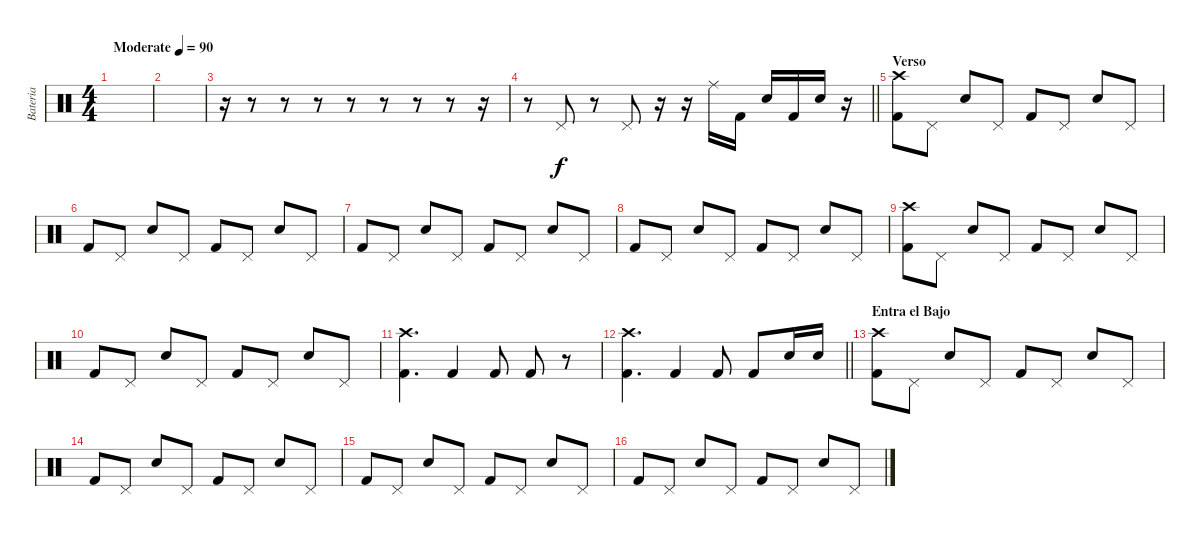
\track ("Bateria" "Bateria") {instrument percussion}
\staff {score}
\articulation defaults
\ts (4 4)
\tempo (90 "Moderate")
\clef neutral
\ks c
|
|
r.16 r.8 r.8 r.8 r.8 r.8 r.8 r.8 r.16 |
\barLineRight lightlight
r.8 "Pedal Hi-Hat (hit)".8 r.8 "Pedal Hi-Hat (hit)".8 r.16 r.16 "Ride (middle)".16 "Kick (hit) 2".16 "Snare (hit) 2".16 "Kick (hit) 2".16 "Snare (hit) 2".16 r.16 |
\section ("" "Verso")
("Kick (hit) 2" "Crash high (hit)").8 "Pedal Hi-Hat (hit)".8 "Snare (hit) 2".8 "Pedal Hi-Hat (hit)".8 "Kick (hit) 2".8 "Pedal Hi-Hat (hit)".8 "Snare (hit) 2".8 "Pedal Hi-Hat (hit)".8 |
"Kick (hit) 2".8 "Pedal Hi-Hat (hit)".8 "Snare (hit) 2".8 "Pedal Hi-Hat (hit)".8 "Kick (hit) 2".8 "Pedal Hi-Hat (hit)".8 "Snare (hit) 2".8 "Pedal Hi-Hat (hit)".8 |
"Kick (hit) 2".8 "Pedal Hi-Hat (hit)".8 "Snare (hit) 2".8 "Pedal Hi-Hat (hit)".8 "Kick (hit) 2".8 "Pedal Hi-Hat (hit)".8 "Snare (hit) 2".8 "Pedal Hi-Hat (hit)".8 |
"Kick (hit) 2".8 "Pedal Hi-Hat (hit)".8 "Snare (hit) 2".8 "Pedal Hi-Hat (hit)".8 "Kick (hit) 2".8 "Pedal Hi-Hat (hit)".8 "Snare (hit) 2".8 "Pedal Hi-Hat (hit)".8 |
("Kick (hit) 2" "Crash high (hit)").8 "Pedal Hi-Hat (hit)".8 "Snare (hit) 2".8 "Pedal Hi-Hat (hit)".8 "Kick (hit) 2".8 "Pedal Hi-Hat (hit)".8 "Snare (hit) 2".8 "Pedal Hi-Hat (hit)".8 |
"Kick (hit) 2".8 "Pedal Hi-Hat (hit)".8 "Snare (hit) 2".8 "Pedal Hi-Hat (hit)".8 "Kick (hit) 2".8 "Pedal Hi-Hat (hit)".8 "Snare (hit) 2".8 "Pedal Hi-Hat (hit)".8 |
("Kick (hit) 2" "Crash high (hit)").4{d} "Kick (hit) 2".4 "Kick (hit) 2".8 "Kick (hit) 2".8 r.8 |
\barLineRight lightlight
("Kick (hit) 2" "Crash high (hit)").4{d} "Kick (hit) 2".4 "Kick (hit) 2".8 "Kick (hit) 2".8 "Snare (hit) 2".16 "Snare (hit) 2".16 |
\section ("" "Entra el Bajo")
("Kick (hit) 2" "Crash high (hit)").8 "Pedal Hi-Hat (hit)".8 "Snare (hit) 2".8 "Pedal Hi-Hat (hit)".8 "Kick (hit) 2".8 "Pedal Hi-Hat (hit)".8 "Snare (hit) 2".8 "Pedal Hi-Hat (hit)".8 |
"Kick (hit) 2".8 "Pedal Hi-Hat (hit)".8 "Snare (hit) 2".8 "Pedal Hi-Hat (hit)".8 "Kick (hit) 2".8 "Pedal Hi-Hat (hit)".8 "Snare (hit) 2".8 "Pedal Hi-Hat (hit)".8 |
"Kick (hit) 2".8 "Pedal Hi-Hat (hit)".8 "Snare (hit) 2".8 "Pedal Hi-Hat (hit)".8 "Kick (hit) 2".8 "Pedal Hi-Hat (hit)".8 "Snare (hit) 2".8 "Pedal Hi-Hat (hit)".8 |
"Kick (hit) 2".8 "Pedal Hi-Hat (hit)".8 "Snare (hit) 2".8 "Pedal Hi-Hat (hit)".8 "Kick (hit) 2".8 "Pedal Hi-Hat (hit)".8 "Snare (hit) 2".8 "Pedal Hi-Hat (hit)".8
